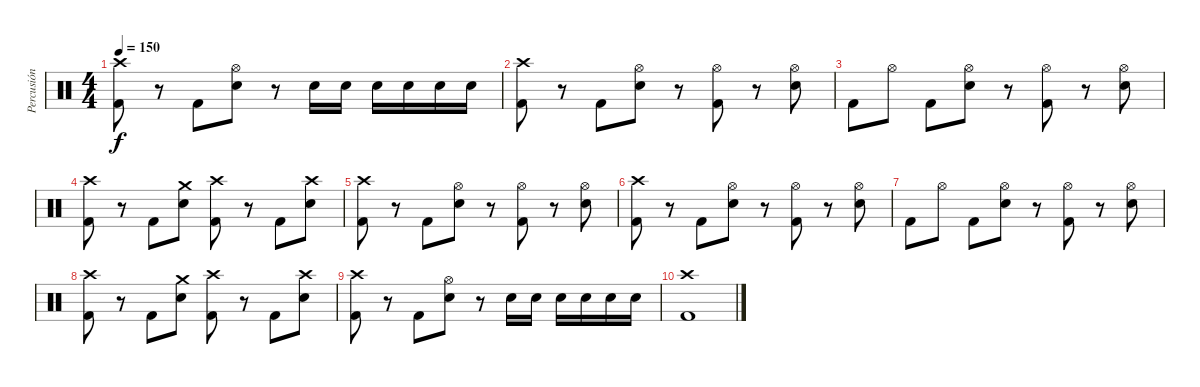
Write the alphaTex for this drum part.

\track ("Percusión" "Percusión") {instrument percussion}
\staff {score}
\articulation defaults
\ts (4 4)
\tempo 150
\clef neutral
\ks c
("Crash high (hit)" "Kick (hit) 2").8{dy f} r.8 "Kick (hit) 2".8 ("Hi-Hat (open)" "Electric Snare (hit)").8 r.8 "Electric Snare (hit)".16 "Electric Snare (hit)".16 "Electric Snare (hit)".16 "Electric Snare (hit)".16 "Electric Snare (hit)".16 "Electric Snare (hit)".16 |
("Crash high (hit)" "Kick (hit) 2").8 r.8 "Kick (hit) 2".8 ("Hi-Hat (open)" "Electric Snare (hit)").8 r.8 ("Hi-Hat (open)" "Kick (hit) 2").8 r.8 ("Hi-Hat (open)" "Electric Snare (hit)").8 |
"Kick (hit) 2".8 "Hi-Hat (open)".8 "Kick (hit) 2".8 ("Hi-Hat (open)" "Electric Snare (hit)").8 r.8 ("Hi-Hat (open)" "Kick (hit) 2").8 r.8 ("Hi-Hat (open)" "Electric Snare (hit)").8 |
("Crash high (hit)" "Kick (hit) 2").8 r.8 "Kick (hit) 2".8 ("Crash medium (hit)" "Electric Snare (hit)").8 ("Crash high (hit)" "Kick (hit) 2").8 r.8 "Kick (hit) 2".8 ("Crash high (hit)" "Electric Snare (hit)").8 |
("Crash high (hit)" "Kick (hit) 2").8 r.8 "Kick (hit) 2".8 ("Hi-Hat (open)" "Electric Snare (hit)").8 r.8 ("Hi-Hat (open)" "Kick (hit) 2").8 r.8 ("Hi-Hat (open)" "Electric Snare (hit)").8 |
("Crash high (hit)" "Kick (hit) 2").8 r.8 "Kick (hit) 2".8 ("Hi-Hat (open)" "Electric Snare (hit)").8 r.8 ("Hi-Hat (open)" "Kick (hit) 2").8 r.8 ("Hi-Hat (open)" "Electric Snare (hit)").8 |
"Kick (hit) 2".8 "Hi-Hat (open)".8 "Kick (hit) 2".8 ("Hi-Hat (open)" "Electric Snare (hit)").8 r.8 ("Hi-Hat (open)" "Kick (hit) 2").8 r.8 ("Hi-Hat (open)" "Electric Snare (hit)").8 |
("Crash high (hit)" "Kick (hit) 2").8 r.8 "Kick (hit) 2".8 ("Crash medium (hit)" "Electric Snare (hit)").8 ("Crash high (hit)" "Kick (hit) 2").8 r.8 "Kick (hit) 2".8 ("Crash high (hit)" "Electric Snare (hit)").8 |
("Crash high (hit)" "Kick (hit) 2").8 r.8 "Kick (hit) 2".8 ("Hi-Hat (open)" "Electric Snare (hit)").8 r.8 "Electric Snare (hit)".16 "Electric Snare (hit)".16 "Electric Snare (hit)".16 "Electric Snare (hit)".16 "Electric Snare (hit)".16 "Electric Snare (hit)".16 |
("Crash high (hit)" "Kick (hit) 2").1
